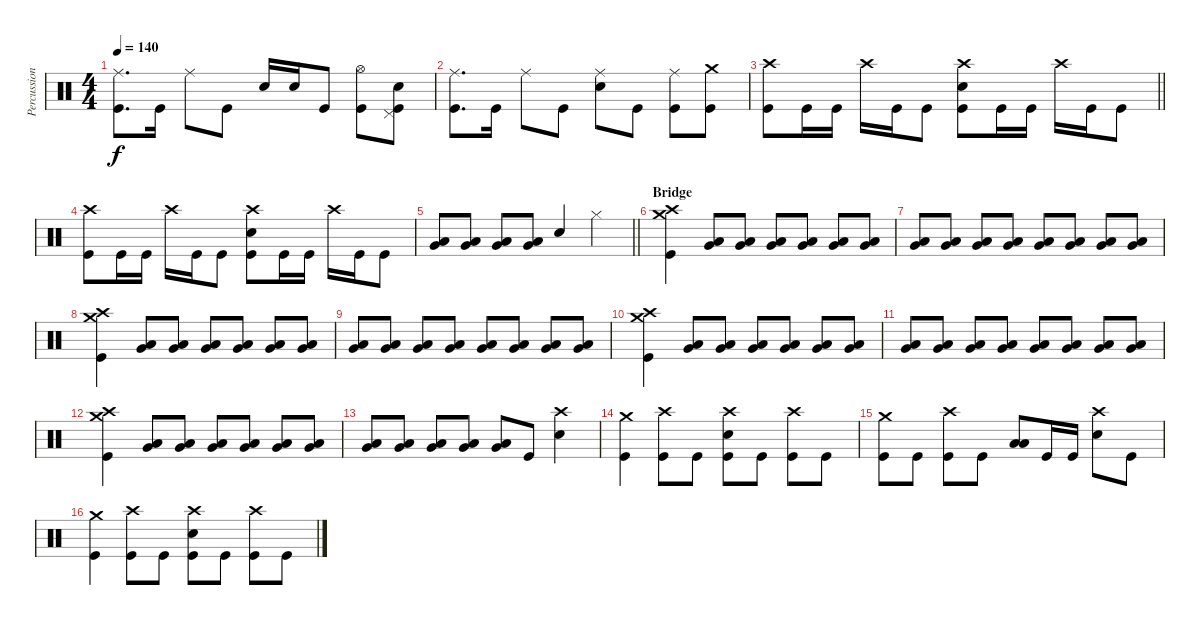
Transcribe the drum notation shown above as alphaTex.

\track ("Percussion" "Percussion") {instrument percussion}
\staff {score}
\articulation defaults
\ts (4 4)
\tempo 140
\clef neutral
\ks c
("Ride (middle)" "Kick (hit)").8{d dy f} "Kick (hit)".16 "Ride (middle)".8 "Kick (hit)".8 "Electric Snare (hit)".16 "Electric Snare (hit)".16 "Kick (hit)".8 ("Hi-Hat (open)" "Kick (hit)").8 ("Pedal Hi-Hat (hit)" "Electric Snare (hit)" "Kick (hit)").8 |
("Ride (middle)" "Kick (hit)").8{d} "Kick (hit)".16 "Ride (middle)".8 "Kick (hit)".8 ("Ride (middle)" "Electric Snare (hit)").8 "Kick (hit)".8 ("Ride (middle)" "Kick (hit)").8 ("Crash medium (hit)" "Kick (hit)").8 |
\barLineRight lightlight
("Crash high (hit)" "Kick (hit)").8 "Kick (hit)".16 "Kick (hit)".16 "Crash high (hit)".16 "Kick (hit)".16 "Kick (hit)".8 ("Crash high (hit)" "Electric Snare (hit)" "Kick (hit)").8 "Kick (hit)".16 "Kick (hit)".16 "Crash high (hit)".16 "Kick (hit)".16 "Kick (hit)".8 |
\section ("" "")
("Crash high (hit)" "Kick (hit)").8 "Kick (hit)".16 "Kick (hit)".16 "Crash high (hit)".16 "Kick (hit)".16 "Kick (hit)".8 ("Crash high (hit)" "Electric Snare (hit)" "Kick (hit)").8 "Kick (hit)".16 "Kick (hit)".16 "Crash high (hit)".16 "Kick (hit)".16 "Kick (hit)".8 |
\barLineRight lightlight
("Very Low Tom (hit)" "Low Floor Tom (hit)").8 ("Very Low Tom (hit)" "Low Floor Tom (hit)").8 ("Very Low Tom (hit)" "Low Floor Tom (hit)").8 ("Very Low Tom (hit)" "Low Floor Tom (hit)").8 "Electric Snare (hit)".4{beam Up} "Hi-Hat (closed)".4 |
\section ("" "Bridge")
("Crash high (hit)" "Crash medium (hit)" "Kick (hit)").4 ("Very Low Tom (hit)" "Low Floor Tom (hit)").8 ("Very Low Tom (hit)" "Low Floor Tom (hit)").8 ("Very Low Tom (hit)" "Low Floor Tom (hit)").8 ("Very Low Tom (hit)" "Low Floor Tom (hit)").8 ("Very Low Tom (hit)" "Low Floor Tom (hit)").8 ("Very Low Tom (hit)" "Low Floor Tom (hit)").8 |
("Very Low Tom (hit)" "Low Floor Tom (hit)").8 ("Very Low Tom (hit)" "Low Floor Tom (hit)").8 ("Very Low Tom (hit)" "Low Floor Tom (hit)").8 ("Very Low Tom (hit)" "Low Floor Tom (hit)").8 ("Very Low Tom (hit)" "Low Floor Tom (hit)").8 ("Very Low Tom (hit)" "Low Floor Tom (hit)").8 ("Very Low Tom (hit)" "Low Floor Tom (hit)").8 ("Very Low Tom (hit)" "Low Floor Tom (hit)").8 |
("Crash high (hit)" "Crash medium (hit)" "Kick (hit)").4 ("Very Low Tom (hit)" "Low Floor Tom (hit)").8 ("Very Low Tom (hit)" "Low Floor Tom (hit)").8 ("Very Low Tom (hit)" "Low Floor Tom (hit)").8 ("Very Low Tom (hit)" "Low Floor Tom (hit)").8 ("Very Low Tom (hit)" "Low Floor Tom (hit)").8 ("Very Low Tom (hit)" "Low Floor Tom (hit)").8 |
("Very Low Tom (hit)" "Low Floor Tom (hit)").8 ("Very Low Tom (hit)" "Low Floor Tom (hit)").8 ("Very Low Tom (hit)" "Low Floor Tom (hit)").8 ("Very Low Tom (hit)" "Low Floor Tom (hit)").8 ("Very Low Tom (hit)" "Low Floor Tom (hit)").8 ("Very Low Tom (hit)" "Low Floor Tom (hit)").8 ("Very Low Tom (hit)" "Low Floor Tom (hit)").8 ("Very Low Tom (hit)" "Low Floor Tom (hit)").8 |
("Crash high (hit)" "Crash medium (hit)" "Kick (hit)").4 ("Very Low Tom (hit)" "Low Floor Tom (hit)").8 ("Very Low Tom (hit)" "Low Floor Tom (hit)").8 ("Very Low Tom (hit)" "Low Floor Tom (hit)").8 ("Very Low Tom (hit)" "Low Floor Tom (hit)").8 ("Very Low Tom (hit)" "Low Floor Tom (hit)").8 ("Very Low Tom (hit)" "Low Floor Tom (hit)").8 |
("Very Low Tom (hit)" "Low Floor Tom (hit)").8 ("Very Low Tom (hit)" "Low Floor Tom (hit)").8 ("Very Low Tom (hit)" "Low Floor Tom (hit)").8 ("Very Low Tom (hit)" "Low Floor Tom (hit)").8 ("Very Low Tom (hit)" "Low Floor Tom (hit)").8 ("Very Low Tom (hit)" "Low Floor Tom (hit)").8 ("Very Low Tom (hit)" "Low Floor Tom (hit)").8 ("Very Low Tom (hit)" "Low Floor Tom (hit)").8 |
("Crash high (hit)" "Crash medium (hit)" "Kick (hit)").4 ("Very Low Tom (hit)" "Low Floor Tom (hit)").8 ("Very Low Tom (hit)" "Low Floor Tom (hit)").8 ("Very Low Tom (hit)" "Low Floor Tom (hit)").8 ("Very Low Tom (hit)" "Low Floor Tom (hit)").8 ("Very Low Tom (hit)" "Low Floor Tom (hit)").8 ("Very Low Tom (hit)" "Low Floor Tom (hit)").8 |
("Very Low Tom (hit)" "Low Floor Tom (hit)").8 ("Very Low Tom (hit)" "Low Floor Tom (hit)").8 ("Very Low Tom (hit)" "Low Floor Tom (hit)").8 ("Very Low Tom (hit)" "Low Floor Tom (hit)").8 ("Very Low Tom (hit)" "Low Floor Tom (hit)").8 "Kick (hit)".8 ("Crash high (hit)" "Electric Snare (hit)").4 |
("Crash medium (hit)" "Kick (hit)").4 ("Crash high (hit)" "Kick (hit)").8 "Kick (hit)".8 ("Crash high (hit)" "Electric Snare (hit)" "Kick (hit)").8 "Kick (hit)".8 ("Crash high (hit)" "Kick (hit)").8 "Kick (hit)".8 |
("Crash medium (hit)" "Kick (hit)").8 "Kick (hit)".8 ("Crash high (hit)" "Kick (hit)").8 "Kick (hit)".8 ("Low Floor Tom (hit)" "Low Floor Tom (hit)").8 "Kick (hit)".16 "Kick (hit)".16 ("Crash high (hit)" "Electric Snare (hit)").8 "Kick (hit)".8 |
("Crash medium (hit)" "Kick (hit)").4 ("Crash high (hit)" "Kick (hit)").8 "Kick (hit)".8 ("Crash high (hit)" "Electric Snare (hit)" "Kick (hit)").8 "Kick (hit)".8 ("Crash high (hit)" "Kick (hit)").8 "Kick (hit)".8
